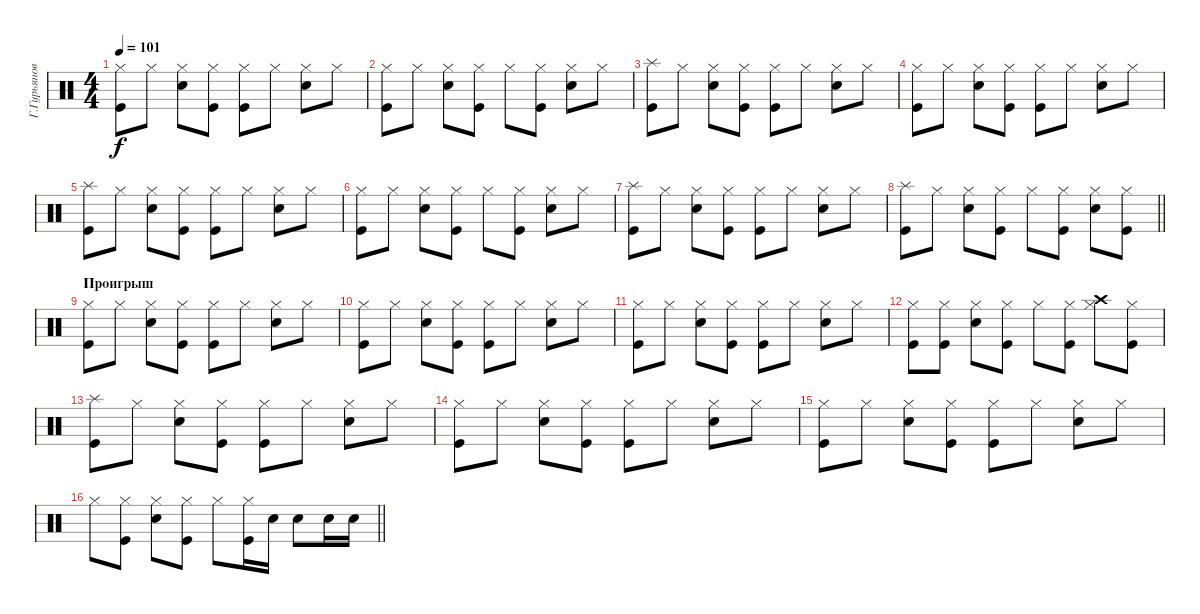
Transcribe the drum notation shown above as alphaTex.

\track ("Г.Гурьянов" "Г.Гурьянов") {instrument percussion}
\staff {score}
\articulation defaults
\ts (4 4)
\tempo 101
\clef neutral
\ks c
("Hi-Hat (closed)" "Kick (hit)").8{dy f} "Hi-Hat (closed)".8 ("Hi-Hat (closed)" "Snare (hit) 2").8 ("Hi-Hat (closed)" "Kick (hit)").8 ("Hi-Hat (closed)" "Kick (hit)").8 "Hi-Hat (closed)".8 ("Hi-Hat (closed)" "Snare (hit) 2").8 "Hi-Hat (closed)".8 |
("Hi-Hat (closed)" "Kick (hit)").8 "Hi-Hat (closed)".8 ("Hi-Hat (closed)" "Snare (hit) 2").8 ("Hi-Hat (closed)" "Kick (hit)").8 "Hi-Hat (closed)".8 ("Hi-Hat (closed)" "Kick (hit)").8 ("Hi-Hat (closed)" "Snare (hit) 2").8 "Hi-Hat (closed)".8 |
("Splash (hit)" "Kick (hit)").8 "Hi-Hat (closed)".8 ("Hi-Hat (closed)" "Snare (hit) 2").8 ("Hi-Hat (closed)" "Kick (hit)").8 ("Hi-Hat (closed)" "Kick (hit)").8 "Hi-Hat (closed)".8 ("Hi-Hat (closed)" "Snare (hit) 2").8 "Hi-Hat (closed)".8 |
("Hi-Hat (closed)" "Kick (hit)").8 "Hi-Hat (closed)".8 ("Hi-Hat (closed)" "Snare (hit) 2").8 ("Hi-Hat (closed)" "Kick (hit)").8 ("Hi-Hat (closed)" "Kick (hit)").8 "Hi-Hat (closed)".8 ("Hi-Hat (closed)" "Snare (hit) 2").8 "Hi-Hat (closed)".8 |
("Splash (hit)" "Kick (hit)").8 "Hi-Hat (closed)".8 ("Hi-Hat (closed)" "Snare (hit) 2").8 ("Hi-Hat (closed)" "Kick (hit)").8 ("Hi-Hat (closed)" "Kick (hit)").8 "Hi-Hat (closed)".8 ("Hi-Hat (closed)" "Snare (hit) 2").8 "Hi-Hat (closed)".8 |
("Hi-Hat (closed)" "Kick (hit)").8 "Hi-Hat (closed)".8 ("Hi-Hat (closed)" "Snare (hit) 2").8 ("Hi-Hat (closed)" "Kick (hit)").8 "Hi-Hat (closed)".8 ("Hi-Hat (closed)" "Kick (hit)").8 ("Hi-Hat (closed)" "Snare (hit) 2").8 "Hi-Hat (closed)".8 |
("Splash (hit)" "Kick (hit)").8 "Hi-Hat (closed)".8 ("Hi-Hat (closed)" "Snare (hit) 2").8 ("Hi-Hat (closed)" "Kick (hit)").8 ("Hi-Hat (closed)" "Kick (hit)").8 "Hi-Hat (closed)".8 ("Hi-Hat (closed)" "Snare (hit) 2").8 "Hi-Hat (closed)".8 |
\barLineRight lightlight
("Splash (hit)" "Kick (hit)").8 "Hi-Hat (closed)".8 ("Hi-Hat (closed)" "Snare (hit) 2").8 ("Hi-Hat (closed)" "Kick (hit)").8 "Hi-Hat (closed)".8 ("Hi-Hat (closed)" "Kick (hit)").8 ("Hi-Hat (closed)" "Snare (hit) 2").8 ("Hi-Hat (closed)" "Kick (hit)").8 |
\section ("" "Проигрыш")
("Hi-Hat (closed)" "Kick (hit)").8 "Hi-Hat (closed)".8 ("Hi-Hat (closed)" "Snare (hit) 2").8 ("Hi-Hat (closed)" "Kick (hit)").8 ("Hi-Hat (closed)" "Kick (hit)").8 "Hi-Hat (closed)".8 ("Hi-Hat (closed)" "Snare (hit) 2").8 "Hi-Hat (closed)".8 |
("Hi-Hat (closed)" "Kick (hit)").8 "Hi-Hat (closed)".8 ("Hi-Hat (closed)" "Snare (hit) 2").8 ("Hi-Hat (closed)" "Kick (hit)").8 ("Hi-Hat (closed)" "Kick (hit)").8 "Hi-Hat (closed)".8 ("Hi-Hat (closed)" "Snare (hit) 2").8 "Hi-Hat (closed)".8 |
("Hi-Hat (closed)" "Kick (hit)").8 "Hi-Hat (closed)".8 ("Hi-Hat (closed)" "Snare (hit) 2").8 ("Hi-Hat (closed)" "Kick (hit)").8 ("Hi-Hat (closed)" "Kick (hit)").8 "Hi-Hat (closed)".8 ("Hi-Hat (closed)" "Snare (hit) 2").8 "Hi-Hat (closed)".8 |
("Hi-Hat (closed)" "Kick (hit)").8 ("Hi-Hat (closed)" "Kick (hit)").8 ("Hi-Hat (closed)" "Snare (hit) 2").8 ("Hi-Hat (closed)" "Kick (hit)").8 "Hi-Hat (closed)".8 ("Hi-Hat (closed)" "Kick (hit)").8 ("Hi-Hat (closed)" "Crash high (hit)").8 ("Hi-Hat (closed)" "Kick (hit)").8 |
("Splash (hit)" "Kick (hit)").8 "Hi-Hat (closed)".8 ("Hi-Hat (closed)" "Snare (hit) 2").8 ("Hi-Hat (closed)" "Kick (hit)").8 ("Hi-Hat (closed)" "Kick (hit)").8 "Hi-Hat (closed)".8 ("Hi-Hat (closed)" "Snare (hit) 2").8 "Hi-Hat (closed)".8 |
("Hi-Hat (closed)" "Kick (hit)").8 "Hi-Hat (closed)".8 ("Hi-Hat (closed)" "Snare (hit) 2").8 ("Hi-Hat (closed)" "Kick (hit)").8 ("Hi-Hat (closed)" "Kick (hit)").8 "Hi-Hat (closed)".8 ("Hi-Hat (closed)" "Snare (hit) 2").8 "Hi-Hat (closed)".8 |
("Hi-Hat (closed)" "Kick (hit)").8 "Hi-Hat (closed)".8 ("Hi-Hat (closed)" "Snare (hit) 2").8 ("Hi-Hat (closed)" "Kick (hit)").8 ("Hi-Hat (closed)" "Kick (hit)").8 "Hi-Hat (closed)".8 ("Hi-Hat (closed)" "Snare (hit) 2").8 "Hi-Hat (closed)".8 |
\barLineRight lightlight "Hi-Hat (closed)".8
("Hi-Hat (closed)" "Kick (hit)").8 ("Hi-Hat (closed)" "Snare (hit) 2").8 ("Hi-Hat (closed)" "Kick (hit)").8 "Hi-Hat (closed)".8 ("Hi-Hat (closed)" "Kick (hit)").16 "Snare (hit) 2".16 "Snare (hit) 2".8 "Snare (hit) 2".16 "Snare (hit) 2".16
